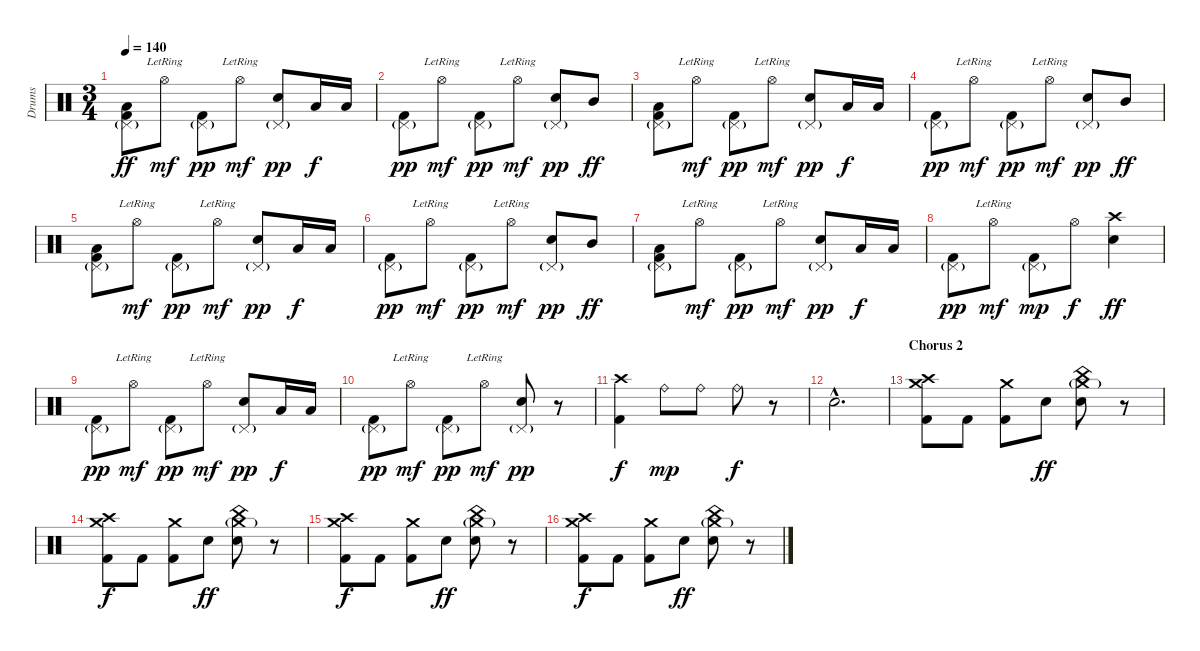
\track ("Drums" "Drums") {instrument percussion}
\staff {score}
\articulation defaults
\ts (3 4)
\tempo 140
\clef neutral
\ks c
("Pedal Hi-Hat (hit)"{g} "Low Tom (hit)" "Kick (hit) 2").8{dy ff} "Hi-Hat (open)"{lr}.8{dy mf} ("Pedal Hi-Hat (hit)"{g} "Kick (hit) 2").8{dy pp} "Hi-Hat (open)"{lr}.8{dy mf} ("Pedal Hi-Hat (hit)"{g} "Snare (hit) 2").8{dy pp} "Low Tom (hit)".16{dy f} "Low Tom (hit)".16 |
("Pedal Hi-Hat (hit)"{g} "Kick (hit) 2").8{dy pp} "Hi-Hat (open)"{lr}.8{dy mf} ("Pedal Hi-Hat (hit)"{g} "Kick (hit) 2").8{dy pp} "Hi-Hat (open)"{lr}.8{dy mf} ("Pedal Hi-Hat (hit)"{g} "Snare (hit) 2").8{dy pp} "Mid Tom (hit)".8{dy ff} |
("Pedal Hi-Hat (hit)"{g} "Low Tom (hit)" "Kick (hit) 2").8 "Hi-Hat (open)"{lr}.8{dy mf} ("Pedal Hi-Hat (hit)"{g} "Kick (hit) 2").8{dy pp} "Hi-Hat (open)"{lr}.8{dy mf} ("Pedal Hi-Hat (hit)"{g} "Snare (hit) 2").8{dy pp} "Low Tom (hit)".16{dy f} "Low Tom (hit)".16 |
("Pedal Hi-Hat (hit)"{g} "Kick (hit) 2").8{dy pp} "Hi-Hat (open)"{lr}.8{dy mf} ("Pedal Hi-Hat (hit)"{g} "Kick (hit) 2").8{dy pp} "Hi-Hat (open)"{lr}.8{dy mf} ("Pedal Hi-Hat (hit)"{g} "Snare (hit) 2").8{dy pp} "Mid Tom (hit)".8{dy ff} |
("Pedal Hi-Hat (hit)"{g} "Low Tom (hit)" "Kick (hit) 2").8 "Hi-Hat (open)"{lr}.8{dy mf} ("Pedal Hi-Hat (hit)"{g} "Kick (hit) 2").8{dy pp} "Hi-Hat (open)"{lr}.8{dy mf} ("Pedal Hi-Hat (hit)"{g} "Snare (hit) 2").8{dy pp} "Low Tom (hit)".16{dy f} "Low Tom (hit)".16 |
("Pedal Hi-Hat (hit)"{g} "Kick (hit) 2").8{dy pp} "Hi-Hat (open)"{lr}.8{dy mf} ("Pedal Hi-Hat (hit)"{g} "Kick (hit) 2").8{dy pp} "Hi-Hat (open)"{lr}.8{dy mf} ("Pedal Hi-Hat (hit)"{g} "Snare (hit) 2").8{dy pp} "Mid Tom (hit)".8{dy ff} |
("Pedal Hi-Hat (hit)"{g} "Low Tom (hit)" "Kick (hit) 2").8 "Hi-Hat (open)"{lr}.8{dy mf} ("Pedal Hi-Hat (hit)"{g} "Kick (hit) 2").8{dy pp} "Hi-Hat (open)"{lr}.8{dy mf} ("Pedal Hi-Hat (hit)"{g} "Snare (hit) 2").8{dy pp} "Low Tom (hit)".16{dy f} "Low Tom (hit)".16 |
("Pedal Hi-Hat (hit)"{g} "Kick (hit) 2").8{dy pp} "Hi-Hat (open)"{lr}.8{dy mf} ("Pedal Hi-Hat (hit)"{g} "Kick (hit) 2").8{dy mp} "Hi-Hat (open)".8{dy f} ("Crash high (hit)" "Snare (hit) 2").4{dy ff} |
("Pedal Hi-Hat (hit)"{g} "Kick (hit) 2").8{dy pp} "Hi-Hat (open)"{lr}.8{dy mf} ("Pedal Hi-Hat (hit)"{g} "Kick (hit) 2").8{dy pp} "Hi-Hat (open)"{lr}.8{dy mf} ("Pedal Hi-Hat (hit)"{g} "Snare (hit) 2").8{dy pp} "Low Tom (hit)".16{dy f} "Low Tom (hit)".16 |
("Pedal Hi-Hat (hit)"{g} "Kick (hit) 2").8{dy pp} "Hi-Hat (open)"{lr}.8{dy mf} ("Pedal Hi-Hat (hit)"{g} "Kick (hit) 2").8{dy pp} "Hi-Hat (open)"{lr}.8{dy mf} ("Pedal Hi-Hat (hit)"{g} "Snare (hit) 2").8{dy pp} r.8 |
("Crash high (hit)" "Kick (hit) 2").4{dy f} "Ride (bell)".8{dy mp} "Ride (bell)".8 "Ride (bell)".8{dy f} r.8 |
"Snare (hit) 2"{hac}.2{d} |
\section ("" "Chorus 2")
("Crash high (hit)" "Crash medium (hit)" "Kick (hit) 2").8 "Kick (hit) 2".8 ("Crash medium (hit)" "Kick (hit) 2").8 "Snare (hit) 2".8{dy ff} ("China (hit)" "Crash medium (hit)"{g} "Snare (hit) 2").8 r.8 |
("Crash high (hit)" "Crash medium (hit)" "Kick (hit) 2").8{dy f} "Kick (hit) 2".8 ("Crash medium (hit)" "Kick (hit) 2").8 "Snare (hit) 2".8{dy ff} ("China (hit)" "Crash medium (hit)"{g} "Snare (hit) 2").8 r.8 |
("Crash high (hit)" "Crash medium (hit)" "Kick (hit) 2").8{dy f} "Kick (hit) 2".8 ("Crash medium (hit)" "Kick (hit) 2").8 "Snare (hit) 2".8{dy ff} ("China (hit)" "Crash medium (hit)"{g} "Snare (hit) 2").8 r.8 |
("Crash high (hit)" "Crash medium (hit)" "Kick (hit) 2").8{dy f} "Kick (hit) 2".8 ("Crash medium (hit)" "Kick (hit) 2").8 "Snare (hit) 2".8{dy ff} ("China (hit)" "Crash medium (hit)"{g} "Snare (hit) 2").8 r.8
